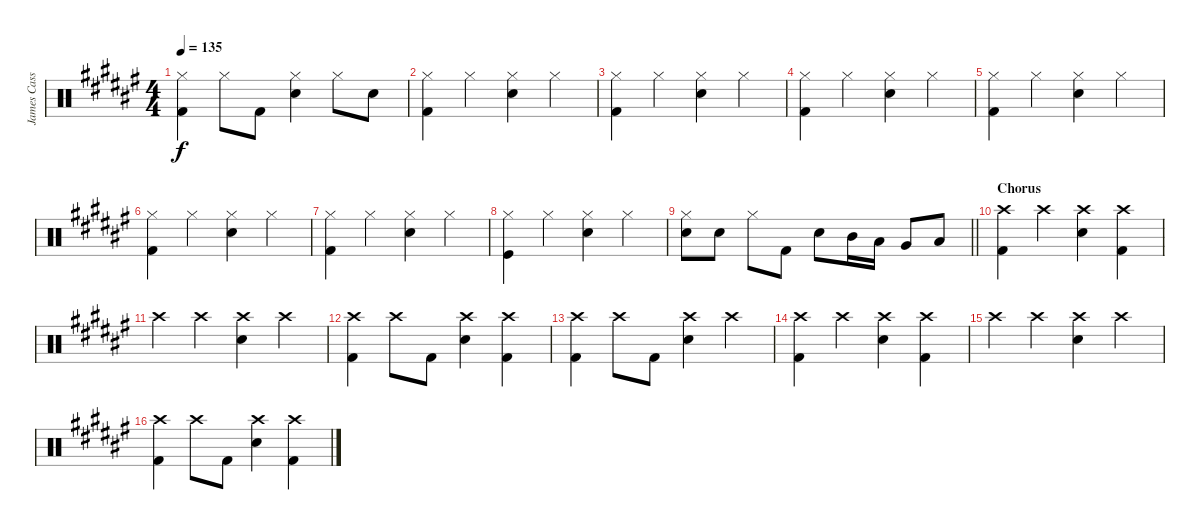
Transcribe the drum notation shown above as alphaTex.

\track ("James Cassells" "James Cass") {instrument percussion}
\staff {score}
\articulation defaults
\ts (4 4)
\tempo 135
\clef neutral
\ks d#minor
("Hi-Hat (closed)" "Kick (hit) 2").4{dy f} "Hi-Hat (closed)".8 "Kick (hit) 2".8 ("Hi-Hat (closed)" "Electric Snare (hit)").4 "Hi-Hat (closed)".8 "Electric Snare (hit)".8 |
("Hi-Hat (closed)" "Kick (hit) 2").4 "Hi-Hat (closed)".4 ("Hi-Hat (closed)" "Electric Snare (hit)").4 "Hi-Hat (closed)".4 |
("Hi-Hat (closed)" "Kick (hit) 2").4 "Hi-Hat (closed)".4 ("Hi-Hat (closed)" "Electric Snare (hit)").4 "Hi-Hat (closed)".4 |
("Hi-Hat (closed)" "Kick (hit) 2").4 "Hi-Hat (closed)".4 ("Hi-Hat (closed)" "Electric Snare (hit)").4 "Hi-Hat (closed)".4 |
("Hi-Hat (closed)" "Kick (hit) 2").4 "Hi-Hat (closed)".4 ("Hi-Hat (closed)" "Electric Snare (hit)").4 "Hi-Hat (closed)".4 |
("Hi-Hat (closed)" "Kick (hit) 2").4 "Hi-Hat (closed)".4 ("Hi-Hat (closed)" "Electric Snare (hit)").4 "Hi-Hat (closed)".4 |
("Hi-Hat (closed)" "Kick (hit) 2").4 "Hi-Hat (closed)".4 ("Hi-Hat (closed)" "Electric Snare (hit)").4 "Hi-Hat (closed)".4 |
("Hi-Hat (closed)" "Kick (hit)").4 "Hi-Hat (closed)".4 ("Hi-Hat (closed)" "Electric Snare (hit)").4 "Hi-Hat (closed)".4 |
\barLineRight lightlight
("Hi-Hat (closed)" "Electric Snare (hit)").8 "Electric Snare (hit)".8 "Hi-Hat (closed)".8 "Kick (hit) 2".8 "Electric Snare (hit)".8 "Mid Tom (hit)".16 "Low Tom (hit)".16 "Very Low Tom (hit)".8 "Low Floor Tom (hit)".8 |
\section ("" "Chorus")
("Crash high (hit)" "Kick (hit) 2").4 "Crash high (hit)".4 ("Crash high (hit)" "Electric Snare (hit)").4 ("Crash high (hit)" "Kick (hit) 2").4 |
"Crash high (hit)".4 "Crash high (hit)".4 ("Crash high (hit)" "Electric Snare (hit)").4 "Crash high (hit)".4 |
("Crash high (hit)" "Kick (hit) 2").4 "Crash high (hit)".8 "Kick (hit) 2".8 ("Crash high (hit)" "Electric Snare (hit)").4 ("Crash high (hit)" "Kick (hit) 2").4 |
("Crash high (hit)" "Kick (hit) 2").4 "Crash high (hit)".8 "Kick (hit) 2".8 ("Crash high (hit)" "Electric Snare (hit)").4 "Crash high (hit)".4 |
("Crash high (hit)" "Kick (hit) 2").4 "Crash high (hit)".4 ("Crash high (hit)" "Electric Snare (hit)").4 ("Crash high (hit)" "Kick (hit) 2").4 |
"Crash high (hit)".4 "Crash high (hit)".4 ("Crash high (hit)" "Electric Snare (hit)").4 "Crash high (hit)".4 |
("Crash high (hit)" "Kick (hit) 2").4 "Crash high (hit)".8 "Kick (hit) 2".8 ("Crash high (hit)" "Electric Snare (hit)").4 ("Crash high (hit)" "Kick (hit) 2").4
